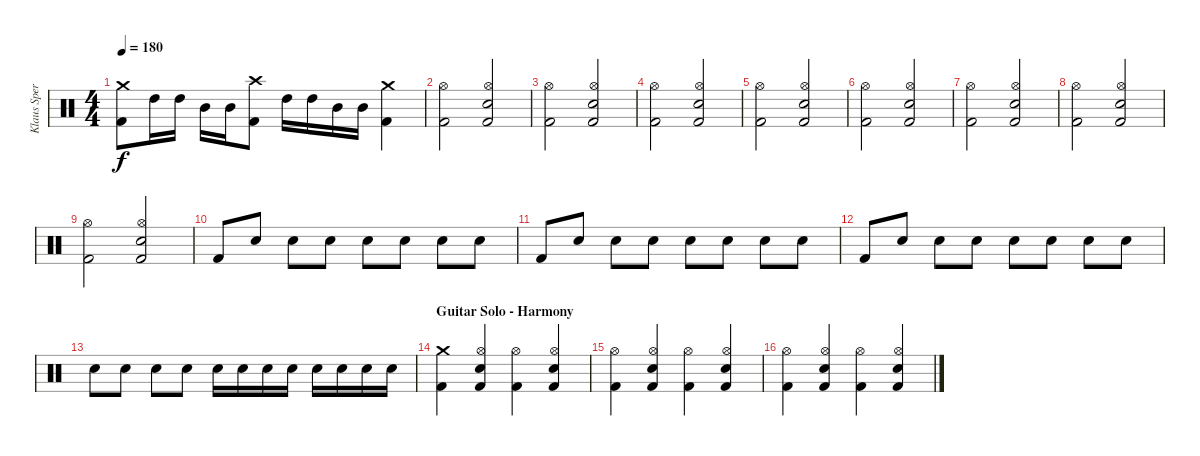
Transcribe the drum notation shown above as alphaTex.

\track ("Klaus Sperling Drums" "Klaus Sper") {instrument percussion}
\staff {score}
\articulation defaults
\ts (4 4)
\tempo 180
\clef neutral
\ks c
("Crash medium (hit)" "Kick (hit) 2").8{dy f} "High Tom (hit)".16 "High Tom (hit)".16 "Mid Tom (hit)".16 "Mid Tom (hit)".16 ("Crash high (hit)" "Kick (hit) 2").8 "High Tom (hit)".16 "High Tom (hit)".16 "Mid Tom (hit)".16 "Mid Tom (hit)".16 ("Crash medium (hit)" "Kick (hit) 2").4 |
("Hi-Hat (open)" "Kick (hit) 2").2 ("Hi-Hat (open)" "Electric Snare (hit)" "Kick (hit) 2").2 |
("Hi-Hat (open)" "Kick (hit) 2").2 ("Hi-Hat (open)" "Electric Snare (hit)" "Kick (hit) 2").2 |
("Hi-Hat (open)" "Kick (hit) 2").2 ("Hi-Hat (open)" "Electric Snare (hit)" "Kick (hit) 2").2 |
("Hi-Hat (open)" "Kick (hit) 2").2 ("Hi-Hat (open)" "Electric Snare (hit)" "Kick (hit) 2").2 |
("Hi-Hat (open)" "Kick (hit) 2").2 ("Hi-Hat (open)" "Electric Snare (hit)" "Kick (hit) 2").2 |
("Hi-Hat (open)" "Kick (hit) 2").2 ("Hi-Hat (open)" "Electric Snare (hit)" "Kick (hit) 2").2 |
("Hi-Hat (open)" "Kick (hit) 2").2 ("Hi-Hat (open)" "Electric Snare (hit)" "Kick (hit) 2").2 |
("Hi-Hat (open)" "Kick (hit) 2").2 ("Hi-Hat (open)" "Electric Snare (hit)" "Kick (hit) 2").2 |
"Kick (hit) 2".8 "Electric Snare (hit)".8 "Electric Snare (hit)".8 "Electric Snare (hit)".8 "Electric Snare (hit)".8 "Electric Snare (hit)".8 "Electric Snare (hit)".8 "Electric Snare (hit)".8 |
"Kick (hit) 2".8 "Electric Snare (hit)".8 "Electric Snare (hit)".8 "Electric Snare (hit)".8 "Electric Snare (hit)".8 "Electric Snare (hit)".8 "Electric Snare (hit)".8 "Electric Snare (hit)".8 |
"Kick (hit) 2".8 "Electric Snare (hit)".8 "Electric Snare (hit)".8 "Electric Snare (hit)".8 "Electric Snare (hit)".8 "Electric Snare (hit)".8 "Electric Snare (hit)".8 "Electric Snare (hit)".8 |
"Electric Snare (hit)".8 "Electric Snare (hit)".8 "Electric Snare (hit)".8 "Electric Snare (hit)".8 "Electric Snare (hit)".16 "Electric Snare (hit)".16 "Electric Snare (hit)".16 "Electric Snare (hit)".16 "Electric Snare (hit)".16 "Electric Snare (hit)".16 "Electric Snare (hit)".16 "Electric Snare (hit)".16 |
\section ("" "Guitar Solo - Harmony")
("Crash medium (hit)" "Kick (hit) 2").4 ("Hi-Hat (open)" "Electric Snare (hit)" "Kick (hit) 2").4 ("Hi-Hat (open)" "Kick (hit) 2").4 ("Hi-Hat (open)" "Electric Snare (hit)" "Kick (hit) 2").4 |
("Hi-Hat (open)" "Kick (hit) 2").4 ("Hi-Hat (open)" "Electric Snare (hit)" "Kick (hit) 2").4 ("Hi-Hat (open)" "Kick (hit) 2").4 ("Hi-Hat (open)" "Electric Snare (hit)" "Kick (hit) 2").4 |
("Hi-Hat (open)" "Kick (hit) 2").4 ("Hi-Hat (open)" "Electric Snare (hit)" "Kick (hit) 2").4 ("Hi-Hat (open)" "Kick (hit) 2").4 ("Hi-Hat (open)" "Electric Snare (hit)" "Kick (hit) 2").4
